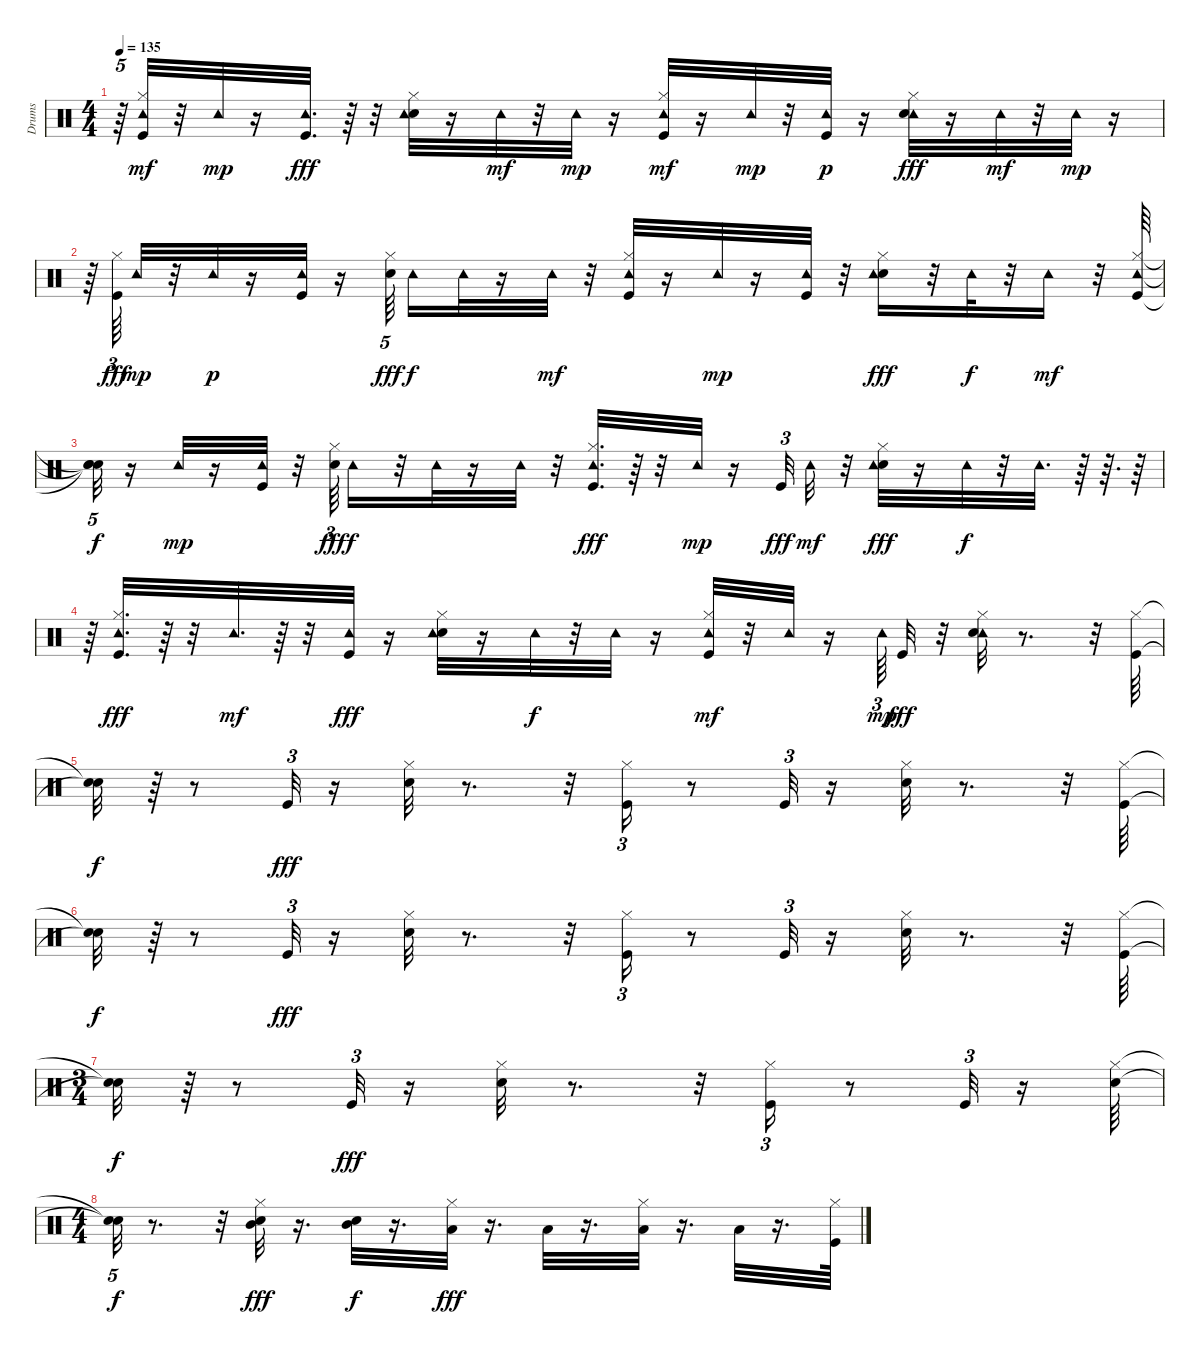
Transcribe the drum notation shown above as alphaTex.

\track ("Drums" "Drums") {instrument percussion}
\staff {score}
\articulation defaults
\ts (4 4)
\tempo 135
\clef neutral
\ks c
r.64{tu (5 4) dy mp} ("Kick (hit)" "Hi-Hat (closed)" "Tambourine (hit)").32{dy mf} r.32 "Tambourine (hit)".32{dy mp} r.16 ("Tambourine (hit)" "Kick (hit)").32{d dy fff} r.64 r.32 ("Electric Snare (hit)" "Hi-Hat (closed)" "Tambourine (hit)").32 r.16 "Tambourine (hit)".32{dy mf} r.32 "Tambourine (hit)".32{dy mp} r.16 ("Kick (hit)" "Hi-Hat (closed)" "Tambourine (hit)").32{dy mf} r.16 "Tambourine (hit)".32{dy mp} r.32 ("Kick (hit)" "Tambourine (hit)").32{dy p} r.16 ("Tambourine (hit)" "Electric Snare (hit)" "Hi-Hat (closed)").32{dy fff} r.16 "Tambourine (hit)".32{dy mf} r.32 "Tambourine (hit)".32{dy mp} r.16 |
r.64 ("Kick (hit)" "Hi-Hat (closed)").64{tu (3 2) dy fff} "Tambourine (hit)".32{dy mp} r.32 "Tambourine (hit)".32{dy p} r.16 ("Kick (hit)" "Tambourine (hit)").32 r.16 ("Electric Snare (hit)" "Hi-Hat (closed)").64{tu (5 4) dy fff beam splitsecondary} "Tambourine (hit)".16{dy f} "Tambourine (hit)".32 r.16 "Tambourine (hit)".32{dy mf} r.32 ("Kick (hit)" "Hi-Hat (closed)" "Tambourine (hit)").32 r.16 "Tambourine (hit)".32{dy mp} r.16 ("Kick (hit)" "Tambourine (hit)").32 r.32 ("Electric Snare (hit)" "Hi-Hat (closed)" "Tambourine (hit)").16{dy fff} r.32 "Tambourine (hit)".32{dy f} r.32 "Tambourine (hit)".16{dy mf} r.32 ("Kick (hit)" "Hi-Hat (closed)" "Tambourine (hit)").64 |
("Snare (hit)"{t} "Snare (hit)"{t} "Snare (hit)"{t}).32{tu (5 4) dy f} r.16 "Tambourine (hit)".32{dy mp} r.16 ("Kick (hit)" "Tambourine (hit)").32 r.32 ("Electric Snare (hit)" "Hi-Hat (closed)").64{tu (3 2) dy fff} "Tambourine (hit)".16{dy f} r.32 "Tambourine (hit)".32 r.16 "Tambourine (hit)".32 r.32 ("Kick (hit)" "Hi-Hat (closed)" "Tambourine (hit)").32{d dy fff} r.64 r.32 "Tambourine (hit)".32{dy mp} r.16 "Kick (hit)".32{tu (3 2) dy fff} "Tambourine (hit)".32{dy mf} r.32 ("Electric Snare (hit)" "Hi-Hat (closed)" "Tambourine (hit)").32{dy fff} r.16 "Tambourine (hit)".32{dy f} r.32 "Tambourine (hit)".32{d} r.64 r.64{d} r.64 |
r.64 ("Kick (hit)" "Hi-Hat (closed)" "Tambourine (hit)").32{d dy fff} r.64 r.32 "Tambourine (hit)".32{d dy mf} r.64 r.32 ("Kick (hit)" "Tambourine (hit)").32{dy fff} r.16 ("Electric Snare (hit)" "Hi-Hat (closed)" "Tambourine (hit)").32 r.16 "Tambourine (hit)".32{dy f} r.32 "Tambourine (hit)".32 r.16 ("Kick (hit)" "Hi-Hat (closed)" "Tambourine (hit)").32{dy mf} r.32 "Tambourine (hit)".32 r.16 "Tambourine (hit)".64{tu (3 2) dy mp} "Kick (hit)".32{dy fff} r.32 ("Tambourine (hit)" "Electric Snare (hit)" "Hi-Hat (closed)").32 r.8{d} r.32 ("Kick (hit)" "Hi-Hat (closed)").64 |
("Snare (hit)"{t} "Snare (hit)"{t}).32{dy f} r.64 r.8 "Kick (hit)".32{tu (3 2) dy fff} r.16 ("Electric Snare (hit)" "Hi-Hat (closed)").32 r.8{d} r.32 ("Kick (hit)" "Hi-Hat (closed)").16{tu (3 2)} r.8 "Kick (hit)".32{tu (3 2)} r.16 ("Electric Snare (hit)" "Hi-Hat (closed)").32 r.8{d} r.32 ("Kick (hit)" "Hi-Hat (closed)").64 |
("Snare (hit)"{t} "Snare (hit)"{t}).32{dy f} r.64 r.8 "Kick (hit)".32{tu (3 2) dy fff} r.16 ("Electric Snare (hit)" "Hi-Hat (closed)").32 r.8{d} r.32 ("Kick (hit)" "Hi-Hat (closed)").16{tu (3 2)} r.8 "Kick (hit)".32{tu (3 2)} r.16 ("Electric Snare (hit)" "Hi-Hat (closed)").32 r.8{d} r.32 ("Kick (hit)" "Hi-Hat (closed)").64 |
\ts (3 4)
("Snare (hit)"{t} "Snare (hit)"{t}).32{dy f} r.64 r.8 "Kick (hit)".32{tu (3 2) dy fff} r.16 ("Electric Snare (hit)" "Hi-Hat (closed)").32 r.8{d} r.32 ("Kick (hit)" "Hi-Hat (closed)").16{tu (3 2)} r.8 "Kick (hit)".32{tu (3 2)} r.16 ("Electric Snare (hit)" "Hi-Hat (closed)").64 |
\ts (4 4)
("Snare (hit)"{t} "Snare (hit)"{t}).32{tu (5 4) dy f} r.8{d} r.32 ("Electric Snare (hit)" "Mid Tom (hit)" "Hi-Hat (closed)").32{dy fff} r.16{d} ("Electric Snare (hit)" "Mid Tom (hit)").32{dy f} r.16{d} ("Low Tom (hit)" "Hi-Hat (closed)").32{dy fff} r.16{d} "Low Tom (hit)".32 r.16{d} ("Low Floor Tom (hit)" "Hi-Hat (closed)").32 r.16{d} "Low Floor Tom (hit)".32 r.16{d} ("Kick (hit)" "Hi-Hat (closed)").64
